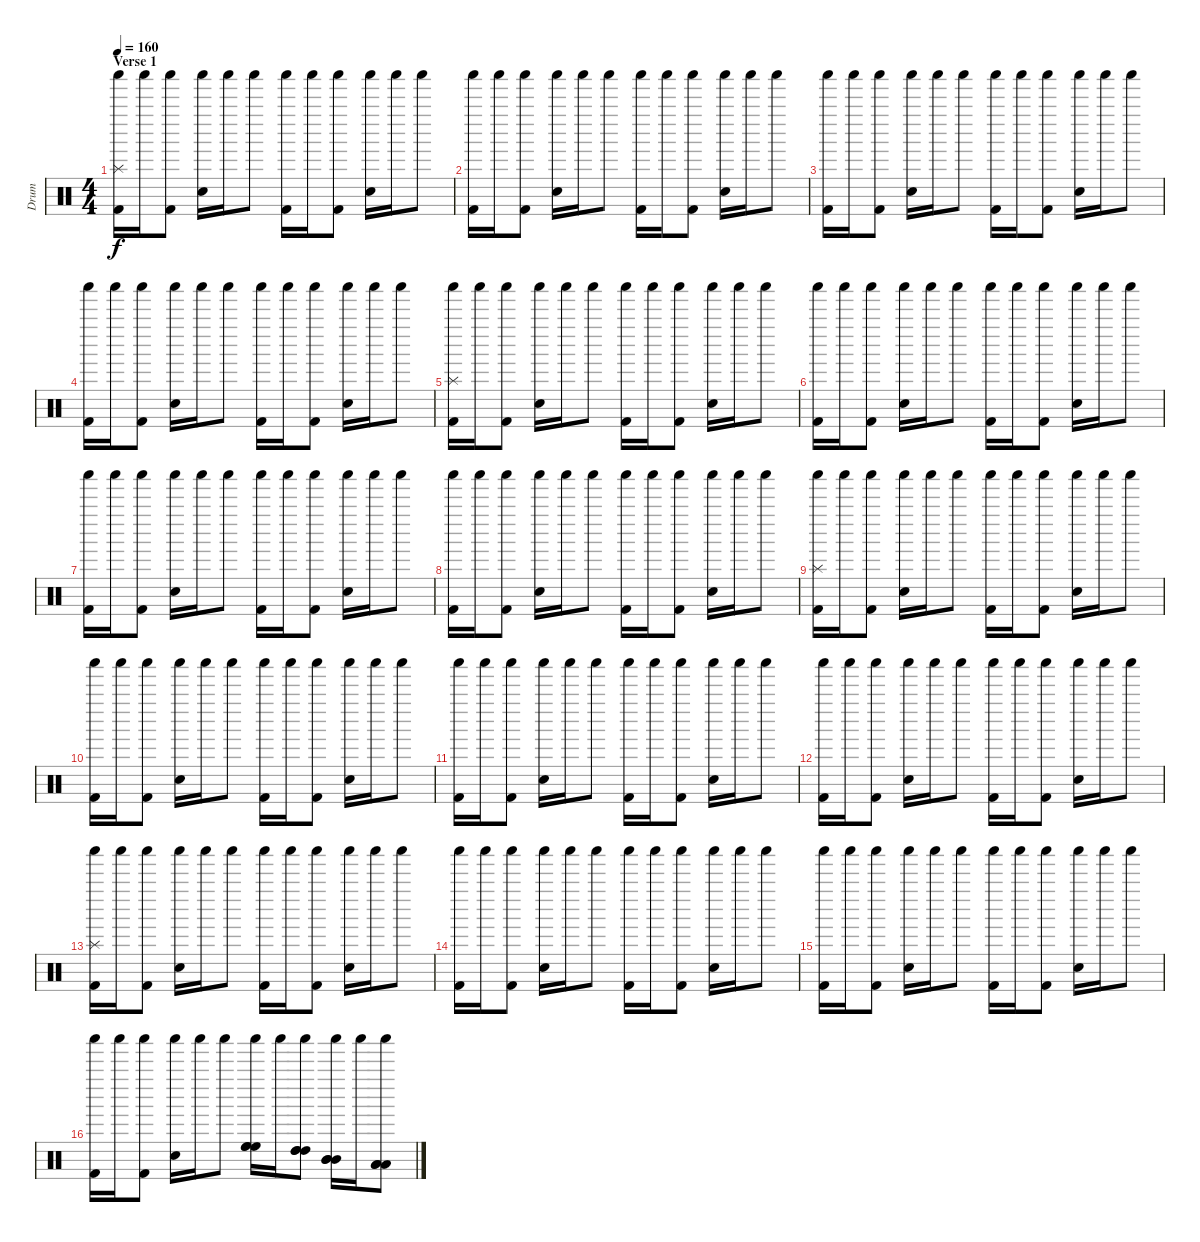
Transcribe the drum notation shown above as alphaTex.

\track ("Drum" "Drum") {instrument percussion}
\staff {score}
\articulation defaults
\ts (4 4)
\section ("" "Verse 1")
\tempo 160
\clef neutral
\ks c
("Splash (hit)" "Shaker (hit)" "Kick (hit) 2").16{dy f} "Shaker (hit)".16 ("Shaker (hit)" "Kick (hit) 2").8 ("Shaker (hit)" "Snare (hit) 2").16 "Shaker (hit)".16 "Shaker (hit)".8 ("Shaker (hit)" "Kick (hit) 2").16 "Shaker (hit)".16 ("Shaker (hit)" "Kick (hit) 2").8 ("Shaker (hit)" "Snare (hit) 2").16 "Shaker (hit)".16 "Shaker (hit)".8 |
("Shaker (hit)" "Kick (hit) 2").16 "Shaker (hit)".16 ("Shaker (hit)" "Kick (hit) 2").8 ("Shaker (hit)" "Snare (hit) 2").16 "Shaker (hit)".16 "Shaker (hit)".8 ("Shaker (hit)" "Kick (hit) 2").16 "Shaker (hit)".16 ("Shaker (hit)" "Kick (hit) 2").8 ("Shaker (hit)" "Snare (hit) 2").16 "Shaker (hit)".16 "Shaker (hit)".8 |
("Shaker (hit)" "Kick (hit) 2").16 "Shaker (hit)".16 ("Shaker (hit)" "Kick (hit) 2").8 ("Shaker (hit)" "Snare (hit) 2").16 "Shaker (hit)".16 "Shaker (hit)".8 ("Shaker (hit)" "Kick (hit) 2").16 "Shaker (hit)".16 ("Shaker (hit)" "Kick (hit) 2").8 ("Shaker (hit)" "Snare (hit) 2").16 "Shaker (hit)".16 "Shaker (hit)".8 |
("Shaker (hit)" "Kick (hit) 2").16 "Shaker (hit)".16 ("Shaker (hit)" "Kick (hit) 2").8 ("Shaker (hit)" "Snare (hit) 2").16 "Shaker (hit)".16 "Shaker (hit)".8 ("Shaker (hit)" "Kick (hit) 2").16 "Shaker (hit)".16 ("Shaker (hit)" "Kick (hit) 2").8 ("Shaker (hit)" "Snare (hit) 2").16 "Shaker (hit)".16 "Shaker (hit)".8 |
("Splash (hit)" "Shaker (hit)" "Kick (hit) 2").16 "Shaker (hit)".16 ("Shaker (hit)" "Kick (hit) 2").8 ("Shaker (hit)" "Snare (hit) 2").16 "Shaker (hit)".16 "Shaker (hit)".8 ("Shaker (hit)" "Kick (hit) 2").16 "Shaker (hit)".16 ("Shaker (hit)" "Kick (hit) 2").8 ("Shaker (hit)" "Snare (hit) 2").16 "Shaker (hit)".16 "Shaker (hit)".8 |
("Shaker (hit)" "Kick (hit) 2").16 "Shaker (hit)".16 ("Shaker (hit)" "Kick (hit) 2").8 ("Shaker (hit)" "Snare (hit) 2").16 "Shaker (hit)".16 "Shaker (hit)".8 ("Shaker (hit)" "Kick (hit) 2").16 "Shaker (hit)".16 ("Shaker (hit)" "Kick (hit) 2").8 ("Shaker (hit)" "Snare (hit) 2").16 "Shaker (hit)".16 "Shaker (hit)".8 |
("Shaker (hit)" "Kick (hit) 2").16 "Shaker (hit)".16 ("Shaker (hit)" "Kick (hit) 2").8 ("Shaker (hit)" "Snare (hit) 2").16 "Shaker (hit)".16 "Shaker (hit)".8 ("Shaker (hit)" "Kick (hit) 2").16 "Shaker (hit)".16 ("Shaker (hit)" "Kick (hit) 2").8 ("Shaker (hit)" "Snare (hit) 2").16 "Shaker (hit)".16 "Shaker (hit)".8 |
("Shaker (hit)" "Kick (hit) 2").16 "Shaker (hit)".16 ("Shaker (hit)" "Kick (hit) 2").8 ("Shaker (hit)" "Snare (hit) 2").16 "Shaker (hit)".16 "Shaker (hit)".8 ("Shaker (hit)" "Kick (hit) 2").16 "Shaker (hit)".16 ("Shaker (hit)" "Kick (hit) 2").8 ("Shaker (hit)" "Snare (hit) 2").16 "Shaker (hit)".16 "Shaker (hit)".8 |
("Splash (hit)" "Shaker (hit)" "Kick (hit) 2").16 "Shaker (hit)".16 ("Shaker (hit)" "Kick (hit) 2").8 ("Shaker (hit)" "Snare (hit) 2").16 "Shaker (hit)".16 "Shaker (hit)".8 ("Shaker (hit)" "Kick (hit) 2").16 "Shaker (hit)".16 ("Shaker (hit)" "Kick (hit) 2").8 ("Shaker (hit)" "Snare (hit) 2").16 "Shaker (hit)".16 "Shaker (hit)".8 |
("Shaker (hit)" "Kick (hit) 2").16 "Shaker (hit)".16 ("Shaker (hit)" "Kick (hit) 2").8 ("Shaker (hit)" "Snare (hit) 2").16 "Shaker (hit)".16 "Shaker (hit)".8 ("Shaker (hit)" "Kick (hit) 2").16 "Shaker (hit)".16 ("Shaker (hit)" "Kick (hit) 2").8 ("Shaker (hit)" "Snare (hit) 2").16 "Shaker (hit)".16 "Shaker (hit)".8 |
("Shaker (hit)" "Kick (hit) 2").16 "Shaker (hit)".16 ("Shaker (hit)" "Kick (hit) 2").8 ("Shaker (hit)" "Snare (hit) 2").16 "Shaker (hit)".16 "Shaker (hit)".8 ("Shaker (hit)" "Kick (hit) 2").16 "Shaker (hit)".16 ("Shaker (hit)" "Kick (hit) 2").8 ("Shaker (hit)" "Snare (hit) 2").16 "Shaker (hit)".16 "Shaker (hit)".8 |
("Shaker (hit)" "Kick (hit) 2").16 "Shaker (hit)".16 ("Shaker (hit)" "Kick (hit) 2").8 ("Shaker (hit)" "Snare (hit) 2").16 "Shaker (hit)".16 "Shaker (hit)".8 ("Shaker (hit)" "Kick (hit) 2").16 "Shaker (hit)".16 ("Shaker (hit)" "Kick (hit) 2").8 ("Shaker (hit)" "Snare (hit) 2").16 "Shaker (hit)".16 "Shaker (hit)".8 |
("Splash (hit)" "Shaker (hit)" "Kick (hit) 2").16 "Shaker (hit)".16 ("Shaker (hit)" "Kick (hit) 2").8 ("Shaker (hit)" "Snare (hit) 2").16 "Shaker (hit)".16 "Shaker (hit)".8 ("Shaker (hit)" "Kick (hit) 2").16 "Shaker (hit)".16 ("Shaker (hit)" "Kick (hit) 2").8 ("Shaker (hit)" "Snare (hit) 2").16 "Shaker (hit)".16 "Shaker (hit)".8 |
("Shaker (hit)" "Kick (hit) 2").16 "Shaker (hit)".16 ("Shaker (hit)" "Kick (hit) 2").8 ("Shaker (hit)" "Snare (hit) 2").16 "Shaker (hit)".16 "Shaker (hit)".8 ("Shaker (hit)" "Kick (hit) 2").16 "Shaker (hit)".16 ("Shaker (hit)" "Kick (hit) 2").8 ("Shaker (hit)" "Snare (hit) 2").16 "Shaker (hit)".16 "Shaker (hit)".8 |
("Shaker (hit)" "Kick (hit) 2").16 "Shaker (hit)".16 ("Shaker (hit)" "Kick (hit) 2").8 ("Shaker (hit)" "Snare (hit) 2").16 "Shaker (hit)".16 "Shaker (hit)".8 ("Shaker (hit)" "Kick (hit) 2").16 "Shaker (hit)".16 ("Shaker (hit)" "Kick (hit) 2").8 ("Shaker (hit)" "Snare (hit) 2").16 "Shaker (hit)".16 "Shaker (hit)".8 |
("Shaker (hit)" "Kick (hit) 2").16 "Shaker (hit)".16 ("Shaker (hit)" "Kick (hit) 2").8 ("Shaker (hit)" "Snare (hit) 2").16 "Shaker (hit)".16 "Shaker (hit)".8 ("High Floor Tom (hit)" "High Floor Tom (hit)" "High Floor Tom (hit)" "Shaker (hit)").16 "Shaker (hit)".16 ("High Tom (hit)" "High Tom (hit)" "High Tom (hit)" "Shaker (hit)").8 ("Mid Tom (hit)" "Mid Tom (hit)" "Mid Tom (hit)" "Shaker (hit)").16 "Shaker (hit)".16 ("Low Tom (hit)" "Low Tom (hit)" "Low Tom (hit)" "Shaker (hit)").8
